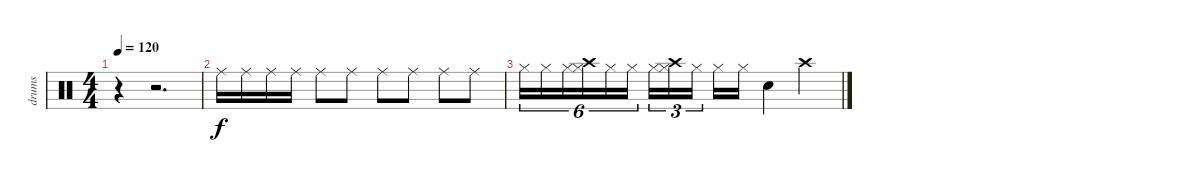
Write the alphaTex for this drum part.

\track ("drums" "drums") {instrument percussion}
\staff {score}
\articulation defaults
\ts (4 4)
\tempo 120
\clef neutral
\ks c
r.4{dy f} r.2{d} |
"Ride (middle)".16 "Ride (middle)".16 "Ride (middle)".16 "Ride (middle)".16 "Ride (middle)".8 "Ride (middle)".8 "Ride (middle)".8 "Ride (middle)".8 "Ride (middle)".8 "Ride (middle)".8 |
"Hi-Hat (closed)".16{tu (6 4)} "Hi-Hat (closed)".16{tu (6 4)} "Hi-Hat (closed)".16{tu (6 4)} ("Hi-Hat (closed)" "Crash high (hit)").16{tu (6 4)} "Hi-Hat (closed)".16{tu (6 4)} "Hi-Hat (closed)".16{tu (6 4)} "Hi-Hat (closed)".16{tu (3 2)} ("Hi-Hat (closed)" "Crash high (hit)").16{tu (3 2)} "Hi-Hat (closed)".16{tu (3 2)} "Hi-Hat (closed)".16 "Hi-Hat (closed)".16 "Snare (hit) 2".4 "Crash high (hit)".4
